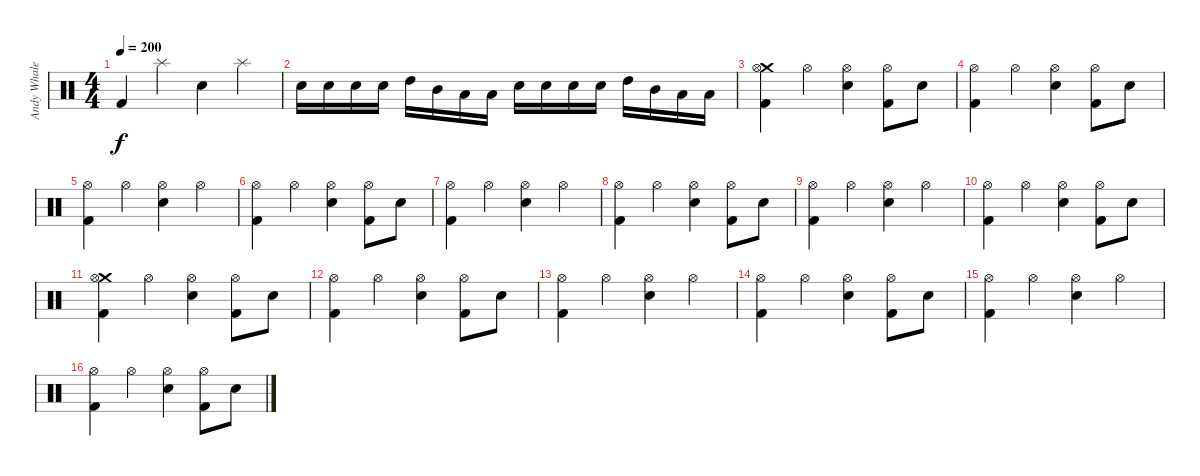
\track ("Andy Whale" "Andy Whale") {instrument percussion}
\staff {score}
\articulation defaults
\ts (4 4)
\tempo 200
\clef neutral
\ks c "Kick (hit) 2".4{dy f} "Splash (hit)".4 "Electric Snare (hit)".4 "Splash (hit)".4
|
"Electric Snare (hit)".16 "Electric Snare (hit)".16 "Electric Snare (hit)".16 "Electric Snare (hit)".16 "High Tom (hit)".16 "Mid Tom (hit)".16 "Low Tom (hit)".16 "Low Tom (hit)".16 "Electric Snare (hit)".16 "Electric Snare (hit)".16 "Electric Snare (hit)".16 "Electric Snare (hit)".16 "High Tom (hit)".16 "Mid Tom (hit)".16 "Low Tom (hit)".16 "Low Tom (hit)".16 |
("Crash medium (hit)" "Hi-Hat (open)" "Kick (hit) 2").4 "Hi-Hat (open)".4 ("Hi-Hat (open)" "Electric Snare (hit)").4 ("Hi-Hat (open)" "Kick (hit) 2").8 "Electric Snare (hit)".8 |
("Hi-Hat (open)" "Kick (hit) 2").4 "Hi-Hat (open)".4 ("Hi-Hat (open)" "Electric Snare (hit)").4 ("Hi-Hat (open)" "Kick (hit) 2").8 "Electric Snare (hit)".8 |
("Hi-Hat (open)" "Kick (hit) 2").4 "Hi-Hat (open)".4 ("Hi-Hat (open)" "Electric Snare (hit)").4 "Hi-Hat (open)".4 |
("Hi-Hat (open)" "Kick (hit) 2").4 "Hi-Hat (open)".4 ("Hi-Hat (open)" "Electric Snare (hit)").4 ("Hi-Hat (open)" "Kick (hit) 2").8 "Electric Snare (hit)".8 |
("Hi-Hat (open)" "Kick (hit) 2").4 "Hi-Hat (open)".4 ("Hi-Hat (open)" "Electric Snare (hit)").4 "Hi-Hat (open)".4 |
("Hi-Hat (open)" "Kick (hit) 2").4 "Hi-Hat (open)".4 ("Hi-Hat (open)" "Electric Snare (hit)").4 ("Hi-Hat (open)" "Kick (hit) 2").8 "Electric Snare (hit)".8 |
("Hi-Hat (open)" "Kick (hit) 2").4 "Hi-Hat (open)".4 ("Hi-Hat (open)" "Electric Snare (hit)").4 "Hi-Hat (open)".4 |
("Hi-Hat (open)" "Kick (hit) 2").4 "Hi-Hat (open)".4 ("Hi-Hat (open)" "Electric Snare (hit)").4 ("Hi-Hat (open)" "Kick (hit) 2").8 "Electric Snare (hit)".8 |
("Crash medium (hit)" "Hi-Hat (open)" "Kick (hit) 2").4 "Hi-Hat (open)".4 ("Hi-Hat (open)" "Electric Snare (hit)").4 ("Hi-Hat (open)" "Kick (hit) 2").8 "Electric Snare (hit)".8 |
("Hi-Hat (open)" "Kick (hit) 2").4 "Hi-Hat (open)".4 ("Hi-Hat (open)" "Electric Snare (hit)").4 ("Hi-Hat (open)" "Kick (hit) 2").8 "Electric Snare (hit)".8 |
("Hi-Hat (open)" "Kick (hit) 2").4 "Hi-Hat (open)".4 ("Hi-Hat (open)" "Electric Snare (hit)").4 "Hi-Hat (open)".4 |
("Hi-Hat (open)" "Kick (hit) 2").4 "Hi-Hat (open)".4 ("Hi-Hat (open)" "Electric Snare (hit)").4 ("Hi-Hat (open)" "Kick (hit) 2").8 "Electric Snare (hit)".8 |
("Hi-Hat (open)" "Kick (hit) 2").4 "Hi-Hat (open)".4 ("Hi-Hat (open)" "Electric Snare (hit)").4 "Hi-Hat (open)".4 |
("Hi-Hat (open)" "Kick (hit) 2").4 "Hi-Hat (open)".4 ("Hi-Hat (open)" "Electric Snare (hit)").4 ("Hi-Hat (open)" "Kick (hit) 2").8 "Electric Snare (hit)".8
